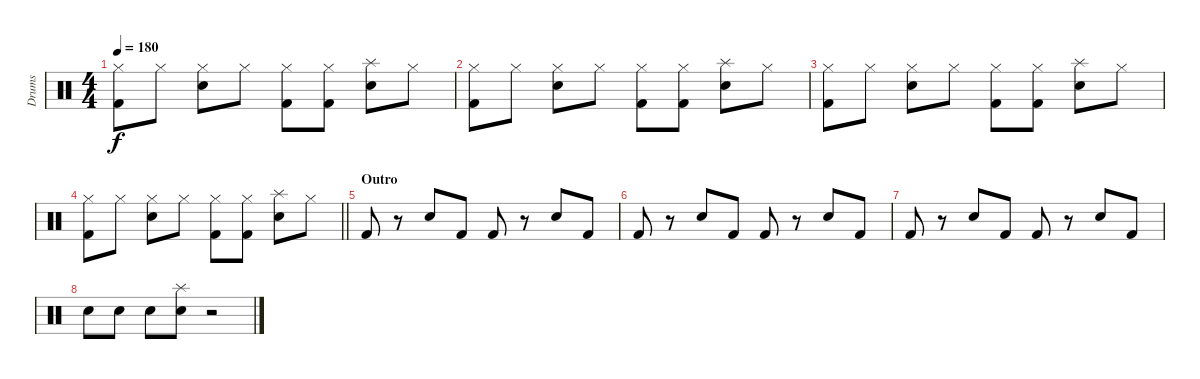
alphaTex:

\track ("Drums" "Drums") {instrument percussion}
\staff {score}
\articulation defaults
\ts (4 4)
\tempo 180
\clef neutral
\ks c
("Hi-Hat (closed)" "Kick (hit) 2").8{dy f} "Hi-Hat (closed)".8 ("Hi-Hat (closed)" "Snare (hit) 2").8 "Hi-Hat (closed)".8 ("Hi-Hat (closed)" "Kick (hit) 2").8 ("Hi-Hat (closed)" "Kick (hit) 2").8 ("Splash (hit)" "Snare (hit) 2").8 "Hi-Hat (closed)".8 |
("Hi-Hat (closed)" "Kick (hit) 2").8 "Hi-Hat (closed)".8 ("Hi-Hat (closed)" "Snare (hit) 2").8 "Hi-Hat (closed)".8 ("Hi-Hat (closed)" "Kick (hit) 2").8 ("Hi-Hat (closed)" "Kick (hit) 2").8 ("Splash (hit)" "Snare (hit) 2").8 "Hi-Hat (closed)".8 |
("Hi-Hat (closed)" "Kick (hit) 2").8 "Hi-Hat (closed)".8 ("Hi-Hat (closed)" "Snare (hit) 2").8 "Hi-Hat (closed)".8 ("Hi-Hat (closed)" "Kick (hit) 2").8 ("Hi-Hat (closed)" "Kick (hit) 2").8 ("Splash (hit)" "Snare (hit) 2").8 "Hi-Hat (closed)".8 |
\barLineRight lightlight
("Hi-Hat (closed)" "Kick (hit) 2").8 "Hi-Hat (closed)".8 ("Hi-Hat (closed)" "Snare (hit) 2").8 "Hi-Hat (closed)".8 ("Hi-Hat (closed)" "Kick (hit) 2").8 ("Hi-Hat (closed)" "Kick (hit) 2").8 ("Splash (hit)" "Snare (hit) 2").8 "Hi-Hat (closed)".8 |
\section ("" "Outro")
"Kick (hit) 2".8 r.8 "Snare (hit) 2".8 "Kick (hit) 2".8 "Kick (hit) 2".8 r.8 "Snare (hit) 2".8 "Kick (hit) 2".8 |
"Kick (hit) 2".8 r.8 "Snare (hit) 2".8 "Kick (hit) 2".8 "Kick (hit) 2".8 r.8 "Snare (hit) 2".8 "Kick (hit) 2".8 |
"Kick (hit) 2".8 r.8 "Snare (hit) 2".8 "Kick (hit) 2".8 "Kick (hit) 2".8 r.8 "Snare (hit) 2".8 "Kick (hit) 2".8 |
"Snare (hit) 2".8 "Snare (hit) 2".8 "Snare (hit) 2".8 ("Splash (hit)" "Snare (hit) 2").8 r.2
